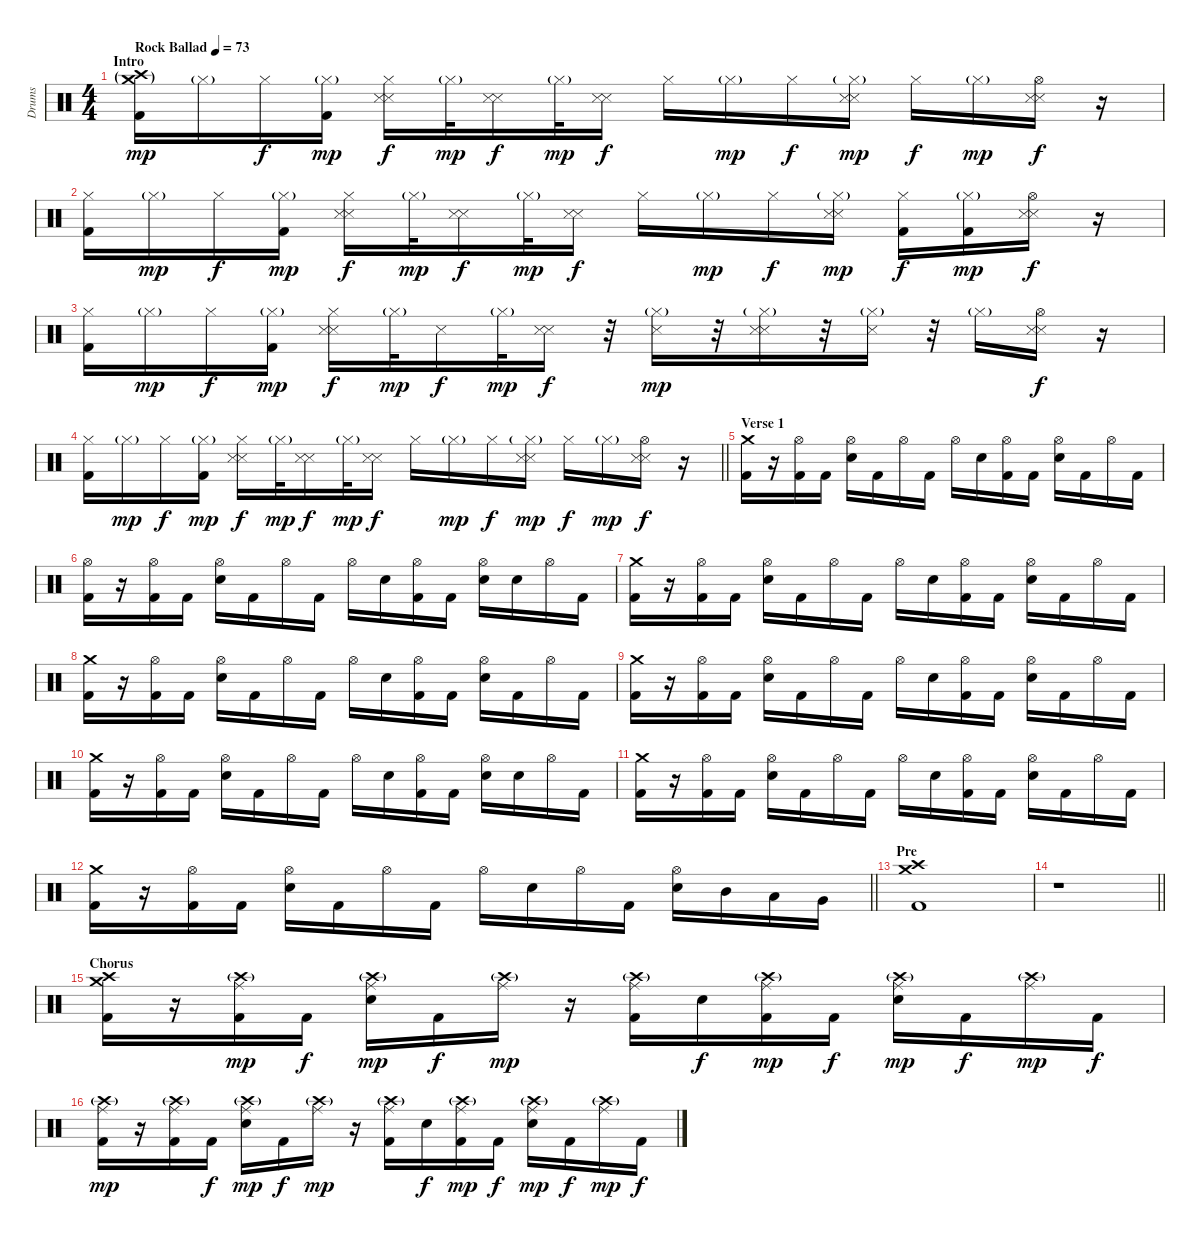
\track ("Drums" "Drums") {instrument percussion}
\staff {score}
\articulation defaults
\ts (4 4)
\section ("" "Intro")
\tempo (73 "Rock Ballad")
\clef neutral
\ks c
("Crash medium (hit)"{g} "Crash high (hit)"{g} "Kick (hit) 2").16{dy mp} "Hi-Hat (closed)"{g}.16 "Hi-Hat (closed)".16{dy f} ("Hi-Hat (closed)"{g} "Kick (hit) 2").16{dy mp} ("Hi-Hat (closed)" "Snare (side stick) 3" "Snare (side stick) 3").16{dy f} "Hi-Hat (closed)"{g}.32{dy mp} ("Snare (side stick) 3" "Snare (side stick) 3").16{dy f} "Hi-Hat (closed)"{g}.32{dy mp} ("Snare (side stick) 3" "Snare (side stick) 3").16{dy f} "Hi-Hat (closed)".16 "Hi-Hat (closed)"{g}.16{dy mp} "Hi-Hat (closed)".16{dy f} ("Hi-Hat (closed)"{g} "Snare (side stick) 3" "Snare (side stick) 3").16{dy mp} "Hi-Hat (closed)".16{dy f} "Hi-Hat (closed)"{g}.16{dy mp} ("Hi-Hat (open)" "Snare (side stick) 3" "Snare (side stick) 3").16{dy f} r.16 |
("Hi-Hat (closed)" "Kick (hit) 2").16 "Hi-Hat (closed)"{g}.16{dy mp} "Hi-Hat (closed)".16{dy f} ("Hi-Hat (closed)"{g} "Kick (hit) 2").16{dy mp} ("Hi-Hat (closed)" "Snare (side stick) 3" "Snare (side stick) 3").16{dy f} "Hi-Hat (closed)"{g}.32{dy mp} ("Snare (side stick) 3" "Snare (side stick) 3").16{dy f} "Hi-Hat (closed)"{g}.32{dy mp} ("Snare (side stick) 3" "Snare (side stick) 3").16{dy f} "Hi-Hat (closed)".16 "Hi-Hat (closed)"{g}.16{dy mp} "Hi-Hat (closed)".16{dy f} ("Hi-Hat (closed)"{g} "Snare (side stick) 3" "Snare (side stick) 3").16{dy mp} ("Hi-Hat (closed)" "Kick (hit) 2").16{dy f} ("Hi-Hat (closed)"{g} "Kick (hit) 2").16{dy mp} ("Hi-Hat (open)" "Snare (side stick) 3" "Snare (side stick) 3").16{dy f} r.16 |
("Hi-Hat (closed)" "Kick (hit) 2").16 "Hi-Hat (closed)"{g}.16{dy mp} "Hi-Hat (closed)".16{dy f} ("Hi-Hat (closed)"{g} "Kick (hit) 2").16{dy mp} ("Hi-Hat (closed)" "Snare (side stick) 3" "Snare (side stick) 3").16{dy f} "Hi-Hat (closed)"{g}.32{dy mp} "Snare (side stick) 3".16{dy f} "Hi-Hat (closed)"{g}.32{dy mp} ("Snare (side stick) 3" "Snare (side stick) 3").16{dy f} r.32 ("Hi-Hat (closed)"{g} "Snare (side stick) 3").16{dy mp} r.32 ("Hi-Hat (closed)"{g} "Snare (side stick) 3" "Snare (side stick) 3").16 r.32 ("Hi-Hat (closed)"{g} "Snare (side stick) 3").16 r.32 "Hi-Hat (closed)"{g}.16 ("Hi-Hat (open)" "Snare (side stick) 3" "Snare (side stick) 3").16{dy f} r.16 |
\barLineRight lightlight
("Hi-Hat (closed)" "Kick (hit) 2").16 "Hi-Hat (closed)"{g}.16{dy mp} "Hi-Hat (closed)".16{dy f} ("Hi-Hat (closed)"{g} "Kick (hit) 2").16{dy mp} ("Hi-Hat (closed)" "Snare (side stick) 3" "Snare (side stick) 3").16{dy f} "Hi-Hat (closed)"{g}.32{dy mp} ("Snare (side stick) 3" "Snare (side stick) 3").16{dy f} "Hi-Hat (closed)"{g}.32{dy mp} ("Snare (side stick) 3" "Snare (side stick) 3").16{dy f} "Hi-Hat (closed)".16 "Hi-Hat (closed)"{g}.16{dy mp} "Hi-Hat (closed)".16{dy f} ("Hi-Hat (closed)"{g} "Snare (side stick) 3" "Snare (side stick) 3").16{dy mp} "Hi-Hat (closed)".16{dy f} "Hi-Hat (closed)"{g}.16{dy mp} ("Hi-Hat (open)" "Snare (side stick) 3" "Snare (side stick) 3").16{dy f} r.16 |
\section ("" "Verse 1")
("Crash medium (hit)" "Kick (hit) 2").16 r.16 ("Hi-Hat (open)" "Kick (hit) 2").16 "Kick (hit) 2".16 ("Hi-Hat (open)" "Electric Snare (hit)").16 "Kick (hit) 2".16 "Hi-Hat (open)".16 "Kick (hit) 2".16 "Hi-Hat (open)".16 "Electric Snare (hit)".16 ("Hi-Hat (open)" "Kick (hit) 2").16 "Kick (hit) 2".16 ("Hi-Hat (open)" "Electric Snare (hit)").16 "Kick (hit) 2".16 "Hi-Hat (open)".16 "Kick (hit) 2".16 |
("Hi-Hat (open)" "Kick (hit) 2").16 r.16 ("Hi-Hat (open)" "Kick (hit) 2").16 "Kick (hit) 2".16 ("Hi-Hat (open)" "Electric Snare (hit)").16 "Kick (hit) 2".16 "Hi-Hat (open)".16 "Kick (hit) 2".16 "Hi-Hat (open)".16 "Electric Snare (hit)".16 ("Hi-Hat (open)" "Kick (hit) 2").16 "Kick (hit) 2".16 ("Hi-Hat (open)" "Electric Snare (hit)").16 "Electric Snare (hit)".16 "Hi-Hat (open)".16 "Kick (hit) 2".16 |
("Crash medium (hit)" "Kick (hit) 2").16 r.16 ("Hi-Hat (open)" "Kick (hit) 2").16 "Kick (hit) 2".16 ("Hi-Hat (open)" "Electric Snare (hit)").16 "Kick (hit) 2".16 "Hi-Hat (open)".16 "Kick (hit) 2".16 "Hi-Hat (open)".16 "Electric Snare (hit)".16 ("Hi-Hat (open)" "Kick (hit) 2").16 "Kick (hit) 2".16 ("Hi-Hat (open)" "Electric Snare (hit)").16 "Kick (hit) 2".16 "Hi-Hat (open)".16 "Kick (hit) 2".16 |
("Crash medium (hit)" "Kick (hit) 2").16 r.16 ("Hi-Hat (open)" "Kick (hit) 2").16 "Kick (hit) 2".16 ("Hi-Hat (open)" "Electric Snare (hit)").16 "Kick (hit) 2".16 "Hi-Hat (open)".16 "Kick (hit) 2".16 "Hi-Hat (open)".16 "Electric Snare (hit)".16 ("Hi-Hat (open)" "Kick (hit) 2").16 "Kick (hit) 2".16 ("Hi-Hat (open)" "Electric Snare (hit)").16 "Kick (hit) 2".16 "Hi-Hat (open)".16 "Kick (hit) 2".16 |
("Crash medium (hit)" "Kick (hit) 2").16 r.16 ("Hi-Hat (open)" "Kick (hit) 2").16 "Kick (hit) 2".16 ("Hi-Hat (open)" "Electric Snare (hit)").16 "Kick (hit) 2".16 "Hi-Hat (open)".16 "Kick (hit) 2".16 "Hi-Hat (open)".16 "Electric Snare (hit)".16 ("Hi-Hat (open)" "Kick (hit) 2").16 "Kick (hit) 2".16 ("Hi-Hat (open)" "Electric Snare (hit)").16 "Kick (hit) 2".16 "Hi-Hat (open)".16 "Kick (hit) 2".16 |
("Crash medium (hit)" "Kick (hit) 2").16 r.16 ("Hi-Hat (open)" "Kick (hit) 2").16 "Kick (hit) 2".16 ("Hi-Hat (open)" "Electric Snare (hit)").16 "Kick (hit) 2".16 "Hi-Hat (open)".16 "Kick (hit) 2".16 "Hi-Hat (open)".16 "Electric Snare (hit)".16 ("Hi-Hat (open)" "Kick (hit) 2").16 "Kick (hit) 2".16 ("Hi-Hat (open)" "Electric Snare (hit)").16 "Electric Snare (hit)".16 "Hi-Hat (open)".16 "Kick (hit) 2".16 |
("Crash medium (hit)" "Kick (hit) 2").16 r.16 ("Hi-Hat (open)" "Kick (hit) 2").16 "Kick (hit) 2".16 ("Hi-Hat (open)" "Electric Snare (hit)").16 "Kick (hit) 2".16 "Hi-Hat (open)".16 "Kick (hit) 2".16 "Hi-Hat (open)".16 "Electric Snare (hit)".16 ("Hi-Hat (open)" "Kick (hit) 2").16 "Kick (hit) 2".16 ("Hi-Hat (open)" "Electric Snare (hit)").16 "Kick (hit) 2".16 "Hi-Hat (open)".16 "Kick (hit) 2".16 |
\barLineRight lightlight
("Crash medium (hit)" "Kick (hit) 2").16 r.16 ("Hi-Hat (open)" "Kick (hit) 2").16 "Kick (hit) 2".16 ("Hi-Hat (open)" "Electric Snare (hit)").16 "Kick (hit) 2".16 "Hi-Hat (open)".16 "Kick (hit) 2".16 "Hi-Hat (open)".16 "Electric Snare (hit)".16 "Hi-Hat (open)".16 "Kick (hit) 2".16 ("Hi-Hat (open)" "Electric Snare (hit)").16 "Mid Tom (hit)".16 "Low Tom (hit)".16 "Very Low Tom (hit)".16 |
\section ("" "Pre")
("Crash medium (hit)" "Crash high (hit)" "Kick (hit) 2").1 |
\barLineRight lightlight
r.1 |
\section ("" "Chorus")
("Crash medium (hit)" "Crash high (hit)" "Kick (hit) 2").16 r.16 ("Crash high (hit)"{g} "Ride (middle)" "Kick (hit) 2").16{dy mp} "Kick (hit) 2".16{dy f} ("Crash high (hit)"{g} "Ride (middle)" "Electric Snare (hit)").16{dy mp} "Kick (hit) 2".16{dy f} ("Crash high (hit)"{g} "Ride (middle)").16{dy mp} r.16 ("Crash high (hit)"{g} "Ride (middle)" "Kick (hit) 2").16 "Electric Snare (hit)".16{dy f} ("Crash high (hit)"{g} "Ride (middle)" "Kick (hit) 2").16{dy mp} "Kick (hit) 2".16{dy f} ("Crash high (hit)"{g} "Ride (middle)" "Electric Snare (hit)").16{dy mp} "Kick (hit) 2".16{dy f} ("Crash high (hit)"{g} "Ride (middle)").16{dy mp} "Kick (hit) 2".16{dy f} |
("Crash high (hit)"{g} "Ride (middle)" "Kick (hit) 2").16{dy mp} r.16 ("Crash high (hit)"{g} "Ride (middle)" "Kick (hit) 2").16 "Kick (hit) 2".16{dy f} ("Crash high (hit)"{g} "Ride (middle)" "Electric Snare (hit)").16{dy mp} "Kick (hit) 2".16{dy f} ("Crash high (hit)"{g} "Ride (middle)").16{dy mp} r.16 ("Crash high (hit)"{g} "Ride (middle)" "Kick (hit) 2").16 "Electric Snare (hit)".16{dy f} ("Crash high (hit)"{g} "Ride (middle)" "Kick (hit) 2").16{dy mp} "Kick (hit) 2".16{dy f} ("Crash high (hit)"{g} "Ride (middle)" "Electric Snare (hit)").16{dy mp} "Kick (hit) 2".16{dy f} ("Crash high (hit)"{g} "Ride (middle)").16{dy mp} "Kick (hit) 2".16{dy f}
